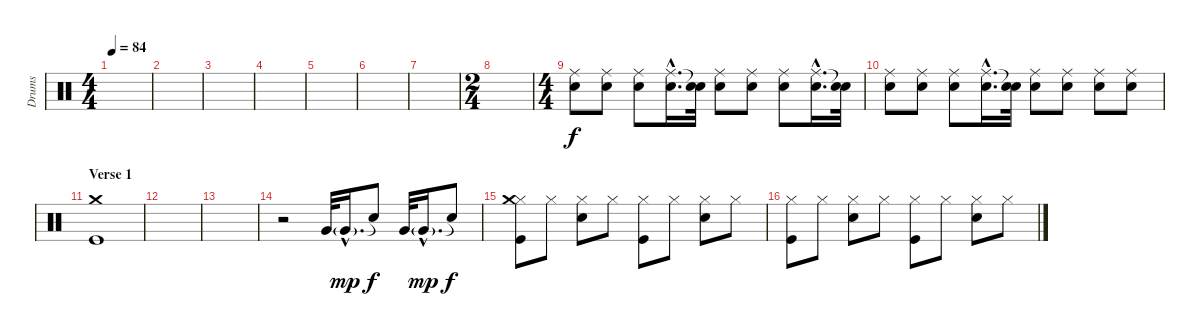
\track ("Drums" "Drums") {instrument percussion}
\staff {score}
\articulation defaults
\ts (4 4)
\tempo 84
\clef neutral
\ks c
|
|
|
|
|
|
|
\ts (2 4)
|
\ts (4 4)
("Ride (middle)" "Snare (hit) 2").8 ("Ride (middle)" "Snare (hit) 2").8 ("Ride (middle)" "Snare (hit) 2").8 ("Ride (middle)"{hac} "Snare (hit) 2"{hac}).16{d} ("Snare (hit)"{t} "Snare (hit) 2").32 ("Ride (middle)" "Snare (hit) 2").8 ("Ride (middle)" "Snare (hit) 2").8 ("Ride (middle)" "Snare (hit) 2").8 ("Ride (middle)"{hac} "Snare (hit) 2"{hac}).16{d} ("Snare (hit)"{t} "Snare (hit) 2").32 |
("Ride (middle)" "Snare (hit) 2").8 ("Ride (middle)" "Snare (hit) 2").8 ("Ride (middle)" "Snare (hit) 2").8 ("Ride (middle)"{hac} "Snare (hit) 2"{hac}).16{d} ("Snare (hit)"{t} "Snare (hit) 2").32 ("Ride (middle)" "Snare (hit) 2").8 ("Ride (middle)" "Snare (hit) 2").8 ("Ride (middle)" "Snare (hit) 2").8 ("Ride (middle)" "Snare (hit) 2").8 |
\section ("" "Verse 1")
("Crash medium (hit)" "Kick (hit)").1 |
|
|
r.2 "Very Low Tom (hit)".32 "Very Low Tom (hit)"{g hac}.16{d dy mp} "Snare (hit)"{t}.8{dy f} "Very Low Tom (hit)".32 "Very Low Tom (hit)"{g hac}.16{d dy mp} "Snare (hit)"{t}.8{dy f} |
("Hi-Hat (closed)" "Crash medium (hit)" "Kick (hit)").8 "Hi-Hat (closed)".8 ("Hi-Hat (closed)" "Snare (hit) 2").8 "Hi-Hat (closed)".8 ("Hi-Hat (closed)" "Kick (hit)").8 "Hi-Hat (closed)".8 ("Hi-Hat (closed)" "Snare (hit) 2").8 "Hi-Hat (closed)".8 |
("Hi-Hat (closed)" "Kick (hit)").8 "Hi-Hat (closed)".8 ("Hi-Hat (closed)" "Snare (hit) 2").8 "Hi-Hat (closed)".8 ("Hi-Hat (closed)" "Kick (hit)").8 "Hi-Hat (closed)".8 ("Hi-Hat (closed)" "Snare (hit) 2").8 "Hi-Hat (closed)".8
